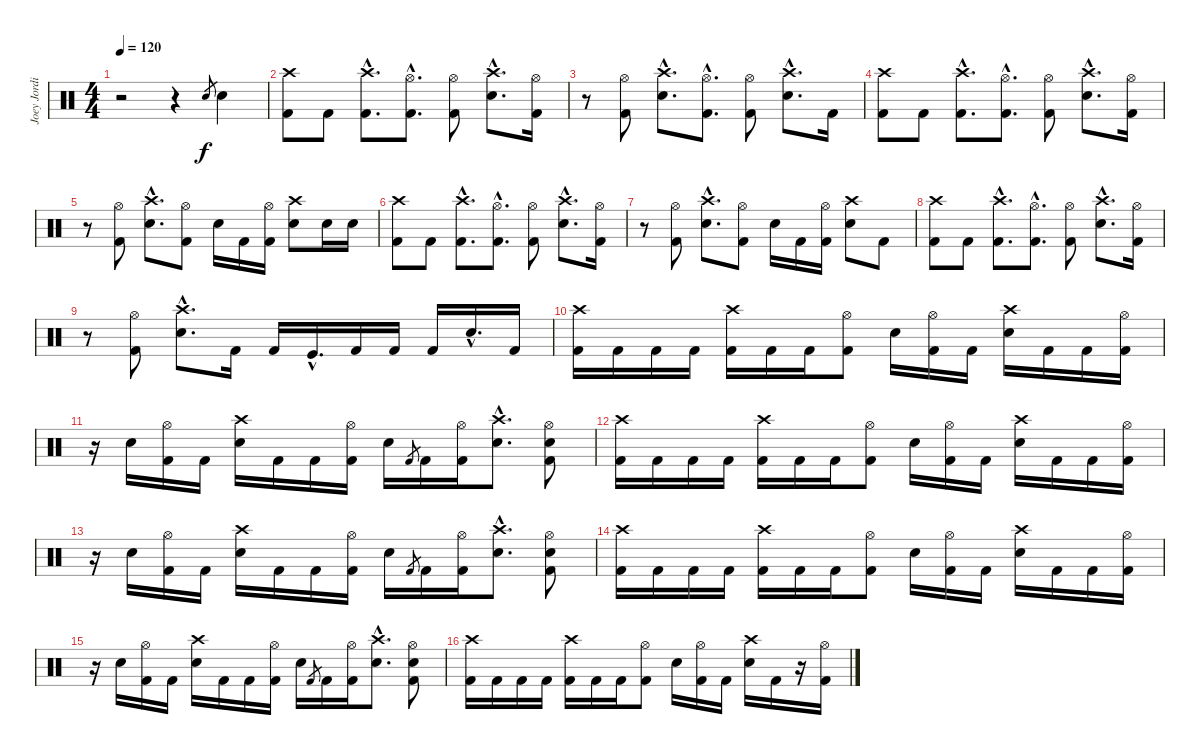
\track ("Joey Jordison   #1" "Joey Jordi") {instrument percussion}
\staff {score}
\articulation defaults
\ts (4 4)
\tempo 120
\clef neutral
\ks c
r.2{dy f} r.4 "Electric Snare (hit)".8{gr} "Electric Snare (hit)".4 |
("Crash high (hit)" "Kick (hit) 2").8 "Kick (hit) 2".8 ("Crash high (hit)"{hac} "Kick (hit) 2"{hac}).8{d} ("Hi-Hat (open)"{hac} "Kick (hit) 2"{hac}).8{d} ("Hi-Hat (open)" "Kick (hit) 2").8 ("Crash high (hit)"{hac} "Electric Snare (hit)"{hac}).8{d} ("Hi-Hat (open)" "Kick (hit) 2").16 |
r.8 ("Hi-Hat (open)" "Kick (hit) 2").8 ("Crash high (hit)"{hac} "Electric Snare (hit)"{hac}).8{d} ("Hi-Hat (open)"{hac} "Kick (hit) 2"{hac}).8{d} ("Hi-Hat (open)" "Kick (hit) 2").8 ("Crash high (hit)"{hac} "Electric Snare (hit)"{hac}).8{d} "Kick (hit) 2".16 |
("Crash high (hit)" "Kick (hit) 2").8 "Kick (hit) 2".8 ("Crash high (hit)"{hac} "Kick (hit) 2"{hac}).8{d} ("Hi-Hat (open)"{hac} "Kick (hit) 2"{hac}).8{d} ("Hi-Hat (open)" "Kick (hit) 2").8 ("Crash high (hit)"{hac} "Electric Snare (hit)"{hac}).8{d} ("Hi-Hat (open)" "Kick (hit) 2").16 |
r.8 ("Hi-Hat (open)" "Kick (hit) 2").8 ("Crash high (hit)"{hac} "Electric Snare (hit)"{hac}).8{d} ("Hi-Hat (open)" "Kick (hit) 2").8 "Electric Snare (hit)".16 "Kick (hit) 2".16 ("Hi-Hat (open)" "Kick (hit) 2").16 ("Crash high (hit)" "Electric Snare (hit)").8 "Electric Snare (hit)".16 "Electric Snare (hit)".16 |
("Crash high (hit)" "Kick (hit) 2").8 "Kick (hit) 2".8 ("Crash high (hit)"{hac} "Kick (hit) 2"{hac}).8{d} ("Hi-Hat (open)"{hac} "Kick (hit) 2"{hac}).8{d} ("Hi-Hat (open)" "Kick (hit) 2").8 ("Crash high (hit)"{hac} "Electric Snare (hit)"{hac}).8{d} ("Hi-Hat (open)" "Kick (hit) 2").16 |
r.8 ("Hi-Hat (open)" "Kick (hit) 2").8 ("Crash high (hit)"{hac} "Electric Snare (hit)"{hac}).8{d} ("Hi-Hat (open)" "Kick (hit) 2").8 "Electric Snare (hit)".16 "Kick (hit) 2".16 ("Hi-Hat (open)" "Kick (hit) 2").16 ("Crash high (hit)" "Electric Snare (hit)").8 "Kick (hit) 2".8 |
("Crash high (hit)" "Kick (hit) 2").8 "Kick (hit) 2".8 ("Crash high (hit)"{hac} "Kick (hit) 2"{hac}).8{d} ("Hi-Hat (open)"{hac} "Kick (hit) 2"{hac}).8{d} ("Hi-Hat (open)" "Kick (hit) 2").8 ("Crash high (hit)"{hac} "Electric Snare (hit)"{hac}).8{d} ("Hi-Hat (open)" "Kick (hit) 2").16 |
r.8 ("Hi-Hat (open)" "Kick (hit) 2").8 ("Crash high (hit)"{hac} "Electric Snare (hit)"{hac}).8{d} "Kick (hit) 2".16 "Kick (hit) 2".16 "Kick (hit)"{hac}.16{d} "Kick (hit) 2".16 "Kick (hit) 2".16 "Kick (hit) 2".16 "Electric Snare (hit)"{hac}.16{d} "Kick (hit) 2".16 |
("Crash high (hit)" "Kick (hit) 2").16 "Kick (hit) 2".16 "Kick (hit) 2".16 "Kick (hit) 2".16 ("Crash high (hit)" "Kick (hit) 2").16 "Kick (hit) 2".16 "Kick (hit) 2".16 ("Hi-Hat (open)" "Kick (hit) 2").8 "Electric Snare (hit)".16 ("Hi-Hat (open)" "Kick (hit) 2").16 "Kick (hit) 2".16 ("Crash high (hit)" "Electric Snare (hit)").16 "Kick (hit) 2".16 "Kick (hit) 2".16 ("Hi-Hat (open)" "Kick (hit) 2").16 |
r.16 "Electric Snare (hit)".16 ("Hi-Hat (open)" "Kick (hit) 2").16 "Kick (hit) 2".16 ("Crash high (hit)" "Electric Snare (hit)").16 "Kick (hit) 2".16 "Kick (hit) 2".16 ("Hi-Hat (open)" "Kick (hit) 2").16 "Electric Snare (hit)".16 "Kick (hit) 2".8{gr} "Kick (hit) 2".16 ("Hi-Hat (open)" "Kick (hit) 2").16 ("Crash high (hit)"{hac} "Electric Snare (hit)"{hac}).8{d} ("Hi-Hat (open)" "Electric Snare (hit)" "Kick (hit) 2").8 |
("Crash high (hit)" "Kick (hit) 2").16 "Kick (hit) 2".16 "Kick (hit) 2".16 "Kick (hit) 2".16 ("Crash high (hit)" "Kick (hit) 2").16 "Kick (hit) 2".16 "Kick (hit) 2".16 ("Hi-Hat (open)" "Kick (hit) 2").8 "Electric Snare (hit)".16 ("Hi-Hat (open)" "Kick (hit) 2").16 "Kick (hit) 2".16 ("Crash high (hit)" "Electric Snare (hit)").16 "Kick (hit) 2".16 "Kick (hit) 2".16 ("Hi-Hat (open)" "Kick (hit) 2").16 |
r.16 "Electric Snare (hit)".16 ("Hi-Hat (open)" "Kick (hit) 2").16 "Kick (hit) 2".16 ("Crash high (hit)" "Electric Snare (hit)").16 "Kick (hit) 2".16 "Kick (hit) 2".16 ("Hi-Hat (open)" "Kick (hit) 2").16 "Electric Snare (hit)".16 "Kick (hit) 2".8{gr} "Kick (hit) 2".16 ("Hi-Hat (open)" "Kick (hit) 2").16 ("Crash high (hit)"{hac} "Electric Snare (hit)"{hac}).8{d} ("Hi-Hat (open)" "Electric Snare (hit)" "Kick (hit) 2").8 |
("Crash high (hit)" "Kick (hit) 2").16 "Kick (hit) 2".16 "Kick (hit) 2".16 "Kick (hit) 2".16 ("Crash high (hit)" "Kick (hit) 2").16 "Kick (hit) 2".16 "Kick (hit) 2".16 ("Hi-Hat (open)" "Kick (hit) 2").8 "Electric Snare (hit)".16 ("Hi-Hat (open)" "Kick (hit) 2").16 "Kick (hit) 2".16 ("Crash high (hit)" "Electric Snare (hit)").16 "Kick (hit) 2".16 "Kick (hit) 2".16 ("Hi-Hat (open)" "Kick (hit) 2").16 |
r.16 "Electric Snare (hit)".16 ("Hi-Hat (open)" "Kick (hit) 2").16 "Kick (hit) 2".16 ("Crash high (hit)" "Electric Snare (hit)").16 "Kick (hit) 2".16 "Kick (hit) 2".16 ("Hi-Hat (open)" "Kick (hit) 2").16 "Electric Snare (hit)".16 "Kick (hit) 2".8{gr} "Kick (hit) 2".16 ("Hi-Hat (open)" "Kick (hit) 2").16 ("Crash high (hit)"{hac} "Electric Snare (hit)"{hac}).8{d} ("Hi-Hat (open)" "Electric Snare (hit)" "Kick (hit) 2").8 |
("Crash high (hit)" "Kick (hit) 2").16 "Kick (hit) 2".16 "Kick (hit) 2".16 "Kick (hit) 2".16 ("Crash high (hit)" "Kick (hit) 2").16 "Kick (hit) 2".16 "Kick (hit) 2".16 ("Hi-Hat (open)" "Kick (hit) 2").8 "Electric Snare (hit)".16 ("Hi-Hat (open)" "Kick (hit) 2").16 "Kick (hit) 2".16 ("Crash high (hit)" "Electric Snare (hit)").16 "Kick (hit) 2".16 r.16 ("Hi-Hat (open)" "Kick (hit) 2").16
